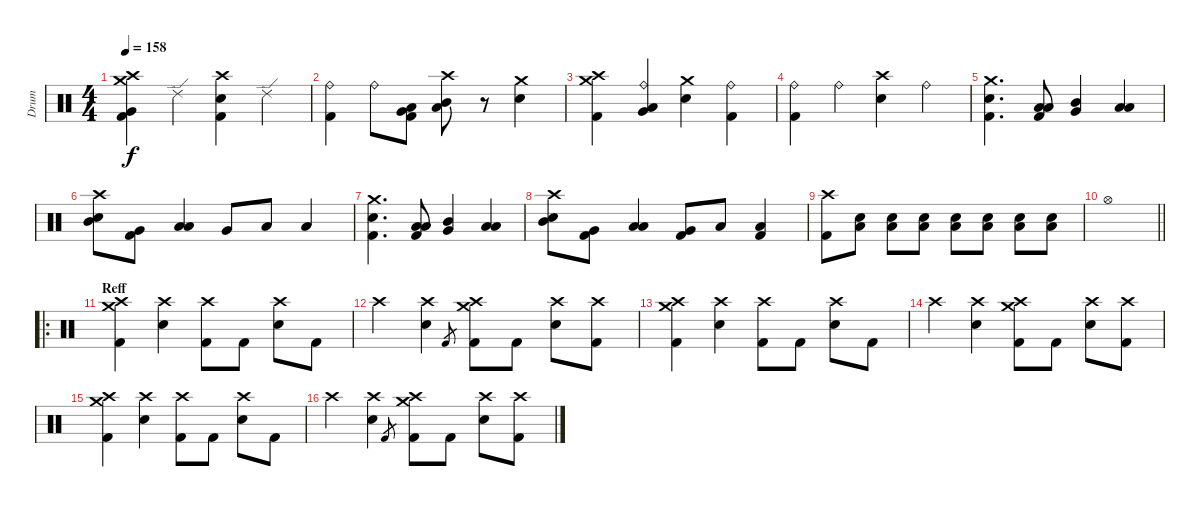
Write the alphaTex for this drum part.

\track ("Drum" "Drum") {instrument percussion}
\staff {score}
\articulation defaults
\ts (4 4)
\tempo 158
\clef neutral
\ks c
("Crash high (hit)" "Crash medium (hit)" "Very Low Tom (hit)" "Kick (hit) 2").4{dy f} "Ride (edge) 2".4 ("Crash high (hit)" "Electric Snare (hit)" "Kick (hit) 2").4 "Ride (edge) 2".4 |
("Ride (bell)" "Kick (hit) 2").4 "Ride (bell)".8 ("Low Tom (hit)" "Very Low Tom (hit)" "Kick (hit) 2").8 ("Crash high (hit)" "Low Floor Tom (hit)" "Mid Tom (hit)").8 r.8 ("Crash medium (hit)" "Electric Snare (hit)").4 |
("Crash high (hit)" "Crash medium (hit)" "Kick (hit) 2").4 ("Ride (bell)" "Very Low Tom (hit)" "Low Floor Tom (hit)").4 ("Crash medium (hit)" "Electric Snare (hit)").4 ("Ride (bell)" "Kick (hit) 2").4 |
("Ride (bell)" "Kick (hit) 2").4 "Ride (bell)".4 ("Crash high (hit)" "Electric Snare (hit)").4 "Ride (bell)".4 |
("Crash medium (hit)" "Electric Snare (hit)" "Kick (hit) 2").4{d} ("Low Floor Tom (hit)" "Low Tom (hit)" "Kick (hit) 2").8 ("Mid Tom (hit)" "Very Low Tom (hit)").4 ("Low Floor Tom (hit)" "Low Tom (hit)").4 |
("Crash high (hit)" "Mid Tom (hit)" "Electric Snare (hit)").8 ("Very Low Tom (hit)" "Kick (hit) 2").8 ("Low Floor Tom (hit)" "Low Tom (hit)").4 "Very Low Tom (hit)".8 "Low Floor Tom (hit)".8 "Low Floor Tom (hit)".4 |
("Crash medium (hit)" "Electric Snare (hit)" "Kick (hit) 2").4{d} ("Low Floor Tom (hit)" "Low Tom (hit)" "Kick (hit) 2").8 ("Mid Tom (hit)" "Very Low Tom (hit)").4 ("Low Floor Tom (hit)" "Low Tom (hit)").4 |
("Crash high (hit)" "Mid Tom (hit)" "Electric Snare (hit)").8 ("Very Low Tom (hit)" "Kick (hit) 2").8 ("Low Floor Tom (hit)" "Low Tom (hit)").4 ("Very Low Tom (hit)" "Kick (hit) 2").8 "Low Floor Tom (hit)".8 ("Low Floor Tom (hit)" "Kick (hit) 2").4 |
("Crash high (hit)" "Kick (hit) 2").8 ("Low Floor Tom (hit)" "Electric Snare (hit)").8 ("Low Floor Tom (hit)" "Electric Snare (hit)").8 ("Low Floor Tom (hit)" "Electric Snare (hit)").8 ("Low Floor Tom (hit)" "Electric Snare (hit)").8 ("Low Floor Tom (hit)" "Electric Snare (hit)").8 ("Low Floor Tom (hit)" "Electric Snare (hit)").8 ("Low Floor Tom (hit)" "Electric Snare (hit)").8 |
\barLineRight lightlight "Hi-Hat (open)".1
|
\ro
\section ("" "Reff")
("Crash high (hit)" "Crash medium (hit)" "Kick (hit) 2").4 ("Crash high (hit)" "Electric Snare (hit)").4 ("Crash high (hit)" "Kick (hit) 2").8 "Kick (hit) 2".8 ("Crash high (hit)" "Electric Snare (hit)").8 "Kick (hit) 2".8 |
"Crash high (hit)".4 ("Crash high (hit)" "Electric Snare (hit)").4 "Kick (hit) 2".8{gr} ("Crash high (hit)" "Crash medium (hit)" "Kick (hit) 2").8 "Kick (hit) 2".8 ("Crash high (hit)" "Electric Snare (hit)").8 ("Crash high (hit)" "Kick (hit) 2").8 |
("Crash high (hit)" "Crash medium (hit)" "Kick (hit) 2").4 ("Crash high (hit)" "Electric Snare (hit)").4 ("Crash high (hit)" "Kick (hit) 2").8 "Kick (hit) 2".8 ("Crash high (hit)" "Electric Snare (hit)").8 "Kick (hit) 2".8 |
"Crash high (hit)".4 ("Crash high (hit)" "Electric Snare (hit)").4 ("Crash high (hit)" "Crash medium (hit)" "Kick (hit) 2").8 "Kick (hit) 2".8 ("Crash high (hit)" "Electric Snare (hit)").8 ("Crash high (hit)" "Kick (hit) 2").8 |
("Crash high (hit)" "Crash medium (hit)" "Kick (hit) 2").4 ("Crash high (hit)" "Electric Snare (hit)").4 ("Crash high (hit)" "Kick (hit) 2").8 "Kick (hit) 2".8 ("Crash high (hit)" "Electric Snare (hit)").8 "Kick (hit) 2".8 |
"Crash high (hit)".4 ("Crash high (hit)" "Electric Snare (hit)").4 "Kick (hit) 2".8{gr} ("Crash high (hit)" "Crash medium (hit)" "Kick (hit) 2").8 "Kick (hit) 2".8 ("Crash high (hit)" "Electric Snare (hit)").8 ("Crash high (hit)" "Kick (hit) 2").8
